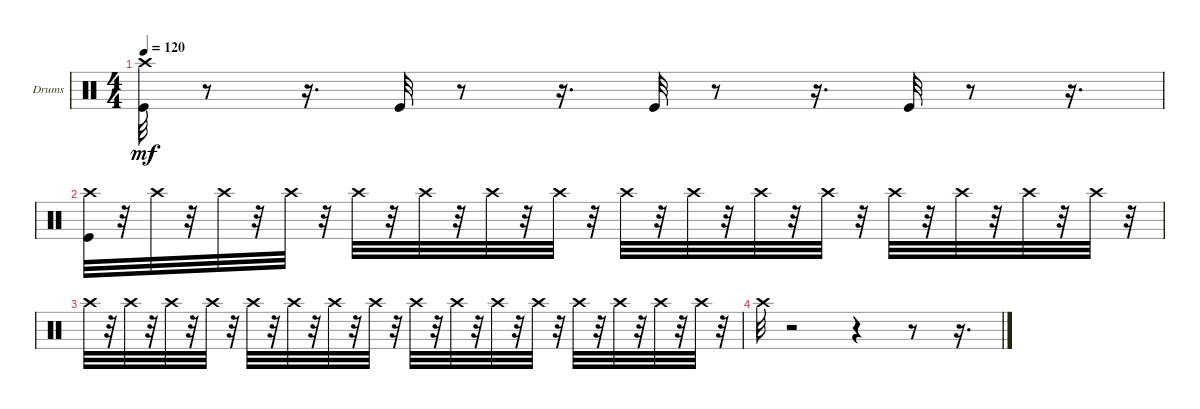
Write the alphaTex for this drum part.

\bracketExtendMode groupsimilarinstruments
\firstSystemTrackNameOrientation horizontal
\otherSystemsTrackNameOrientation horizontal
\track ("" "Drums") {instrument percussion}
\staff {score}
\articulation defaults
\ts (4 4)
\tempo 120
\clef neutral
\ks c
("Crash high (hit)" "Kick (hit)").32{dy mf} r.8 r.16{d} "Kick (hit)".32 r.8 r.16{d} "Kick (hit)".32 r.8 r.16{d} "Kick (hit)".32 r.8 r.16{d} |
("Crash high (hit)" "Kick (hit)").32 r.32 "Crash high (hit)".32 r.32 "Crash high (hit)".32 r.32 "Crash high (hit)".32 r.32 "Crash high (hit)".32 r.32 "Crash high (hit)".32 r.32 "Crash high (hit)".32 r.32 "Crash high (hit)".32 r.32 "Crash high (hit)".32 r.32 "Crash high (hit)".32 r.32 "Crash high (hit)".32 r.32 "Crash high (hit)".32 r.32 "Crash high (hit)".32 r.32 "Crash high (hit)".32 r.32 "Crash high (hit)".32 r.32 "Crash high (hit)".32 r.32 |
"Crash high (hit)".32 r.32 "Crash high (hit)".32 r.32 "Crash high (hit)".32 r.32 "Crash high (hit)".32 r.32 "Crash high (hit)".32 r.32 "Crash high (hit)".32 r.32 "Crash high (hit)".32 r.32 "Crash high (hit)".32 r.32 "Crash high (hit)".32 r.32 "Crash high (hit)".32 r.32 "Crash high (hit)".32 r.32 "Crash high (hit)".32 r.32 "Crash high (hit)".32 r.32 "Crash high (hit)".32 r.32 "Crash high (hit)".32 r.32 "Crash high (hit)".32 r.32 |
"Crash high (hit)".32 r.2 r.4 r.8 r.16{d}
